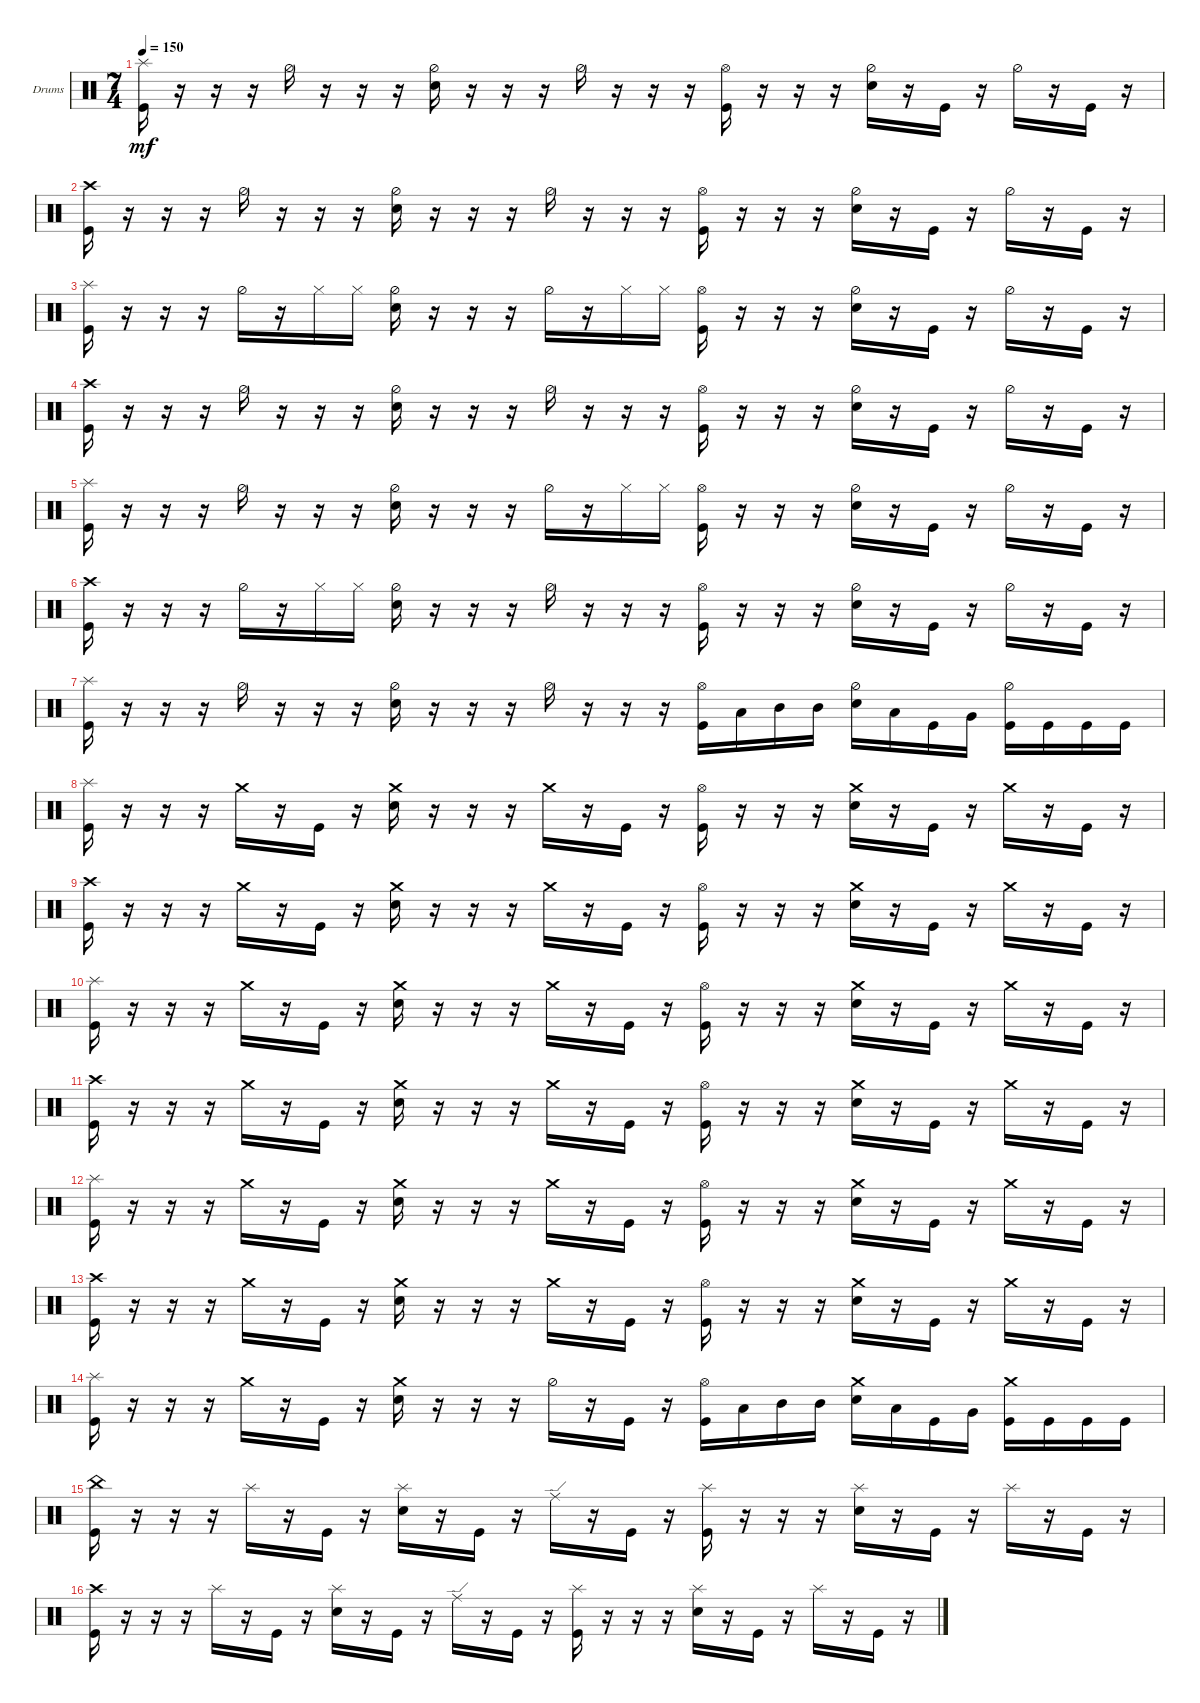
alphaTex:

\defaultSystemsLayout 4
\bracketExtendMode groupsimilarinstruments
\firstSystemTrackNameOrientation horizontal
\otherSystemsTrackNameOrientation horizontal
\track ("Drumkit" "Drums") {instrument percussion}
\staff {score}
\articulation defaults
\ts (7 4)
\tempo 150
\clef neutral
\ks c
("Kick (hit)" "Splash (hit)").16{dy mf} r.16 r.16 r.16 "Hi-Hat (half)".16 r.16 r.16 r.16 ("Hi-Hat (half)" "Snare (hit) 2").16 r.16 r.16 r.16 "Hi-Hat (half)".16 r.16 r.16 r.16 ("Kick (hit)" "Hi-Hat (open)").16 r.16 r.16 r.16 ("Snare (hit) 2" "Hi-Hat (half)").16 r.16 "Kick (hit)".16 r.16 "Hi-Hat (half)".16 r.16 "Kick (hit)".16 r.16 |
("Kick (hit)" "Crash high (hit)").16 r.16 r.16 r.16 "Hi-Hat (half)".16 r.16 r.16 r.16 ("Hi-Hat (half)" "Snare (hit) 2").16 r.16 r.16 r.16 "Hi-Hat (half)".16 r.16 r.16 r.16 ("Kick (hit)" "Hi-Hat (open)").16 r.16 r.16 r.16 ("Snare (hit) 2" "Hi-Hat (half)").16 r.16 "Kick (hit)".16 r.16 "Hi-Hat (half)".16 r.16 "Kick (hit)".16 r.16 |
("Kick (hit)" "Splash (hit)").16 r.16 r.16 r.16 "Hi-Hat (half)".16 r.16 "Hi-Hat (closed)".16 "Hi-Hat (closed)".16 ("Hi-Hat (half)" "Snare (hit) 2").16 r.16 r.16 r.16 "Hi-Hat (half)".16 r.16 "Hi-Hat (closed)".16 "Hi-Hat (closed)".16 ("Kick (hit)" "Hi-Hat (open)").16 r.16 r.16 r.16 ("Snare (hit) 2" "Hi-Hat (half)").16 r.16 "Kick (hit)".16 r.16 "Hi-Hat (half)".16 r.16 "Kick (hit)".16 r.16 |
("Kick (hit)" "Crash high (hit)").16 r.16 r.16 r.16 "Hi-Hat (half)".16 r.16 r.16 r.16 ("Hi-Hat (half)" "Snare (hit) 2").16 r.16 r.16 r.16 "Hi-Hat (half)".16 r.16 r.16 r.16 ("Kick (hit)" "Hi-Hat (open)").16 r.16 r.16 r.16 ("Snare (hit) 2" "Hi-Hat (half)").16 r.16 "Kick (hit)".16 r.16 "Hi-Hat (half)".16 r.16 "Kick (hit)".16 r.16 |
("Kick (hit)" "Splash (hit)").16 r.16 r.16 r.16 "Hi-Hat (half)".16 r.16 r.16 r.16 ("Hi-Hat (half)" "Snare (hit) 2").16 r.16 r.16 r.16 "Hi-Hat (half)".16 r.16 "Hi-Hat (closed)".16 "Hi-Hat (closed)".16 ("Kick (hit)" "Hi-Hat (open)").16 r.16 r.16 r.16 ("Snare (hit) 2" "Hi-Hat (half)").16 r.16 "Kick (hit)".16 r.16 "Hi-Hat (half)".16 r.16 "Kick (hit)".16 r.16 |
("Kick (hit)" "Crash high (hit)").16 r.16 r.16 r.16 "Hi-Hat (half)".16 r.16 "Hi-Hat (closed)".16 "Hi-Hat (closed)".16 ("Hi-Hat (half)" "Snare (hit) 2").16 r.16 r.16 r.16 "Hi-Hat (half)".16 r.16 r.16 r.16 ("Kick (hit)" "Hi-Hat (open)").16 r.16 r.16 r.16 ("Snare (hit) 2" "Hi-Hat (half)").16 r.16 "Kick (hit)".16 r.16 "Hi-Hat (half)".16 r.16 "Kick (hit)".16 r.16 |
("Kick (hit)" "Splash (hit)").16 r.16 r.16 r.16 "Hi-Hat (half)".16 r.16 r.16 r.16 ("Hi-Hat (half)" "Snare (hit) 2").16 r.16 r.16 r.16 "Hi-Hat (half)".16 r.16 r.16 r.16 ("Kick (hit)" "Hi-Hat (open)").16 "Low Tom (hit)".16 "Mid Tom (hit)".16 "Mid Tom (hit)".16 ("Snare (hit) 2" "Hi-Hat (half)").16 "Low Tom (hit)".16 "Kick (hit)".16 "Very Low Tom (hit)".16 ("Hi-Hat (half)" "Kick (hit)").16 "Kick (hit)".16 "Kick (hit)".16 "Kick (hit)".16 |
("Kick (hit)" "Splash (hit)").16 r.16 r.16 r.16 "Crash medium (hit)".16 r.16 "Kick (hit)".16 r.16 ("Snare (hit) 2" "Crash medium (hit)").16 r.16 r.16 r.16 "Crash medium (hit)".16 r.16 "Kick (hit)".16 r.16 ("Kick (hit)" "Hi-Hat (open)").16 r.16 r.16 r.16 ("Snare (hit) 2" "Crash medium (hit)").16 r.16 "Kick (hit)".16 r.16 "Crash medium (hit)".16 r.16 "Kick (hit)".16 r.16 |
("Kick (hit)" "Crash high (hit)").16 r.16 r.16 r.16 "Crash medium (hit)".16 r.16 "Kick (hit)".16 r.16 ("Snare (hit) 2" "Crash medium (hit)").16 r.16 r.16 r.16 "Crash medium (hit)".16 r.16 "Kick (hit)".16 r.16 ("Kick (hit)" "Hi-Hat (open)").16 r.16 r.16 r.16 ("Snare (hit) 2" "Crash medium (hit)").16 r.16 "Kick (hit)".16 r.16 "Crash medium (hit)".16 r.16 "Kick (hit)".16 r.16 |
("Kick (hit)" "Splash (hit)").16 r.16 r.16 r.16 "Crash medium (hit)".16 r.16 "Kick (hit)".16 r.16 ("Snare (hit) 2" "Crash medium (hit)").16 r.16 r.16 r.16 "Crash medium (hit)".16 r.16 "Kick (hit)".16 r.16 ("Kick (hit)" "Hi-Hat (open)").16 r.16 r.16 r.16 ("Snare (hit) 2" "Crash medium (hit)").16 r.16 "Kick (hit)".16 r.16 "Crash medium (hit)".16 r.16 "Kick (hit)".16 r.16 |
("Kick (hit)" "Crash high (hit)").16 r.16 r.16 r.16 "Crash medium (hit)".16 r.16 "Kick (hit)".16 r.16 ("Snare (hit) 2" "Crash medium (hit)").16 r.16 r.16 r.16 "Crash medium (hit)".16 r.16 "Kick (hit)".16 r.16 ("Kick (hit)" "Hi-Hat (open)").16 r.16 r.16 r.16 ("Snare (hit) 2" "Crash medium (hit)").16 r.16 "Kick (hit)".16 r.16 "Crash medium (hit)".16 r.16 "Kick (hit)".16 r.16 |
("Kick (hit)" "Splash (hit)").16 r.16 r.16 r.16 "Crash medium (hit)".16 r.16 "Kick (hit)".16 r.16 ("Snare (hit) 2" "Crash medium (hit)").16 r.16 r.16 r.16 "Crash medium (hit)".16 r.16 "Kick (hit)".16 r.16 ("Kick (hit)" "Hi-Hat (open)").16 r.16 r.16 r.16 ("Snare (hit) 2" "Crash medium (hit)").16 r.16 "Kick (hit)".16 r.16 "Crash medium (hit)".16 r.16 "Kick (hit)".16 r.16 |
("Kick (hit)" "Crash high (hit)").16 r.16 r.16 r.16 "Crash medium (hit)".16 r.16 "Kick (hit)".16 r.16 ("Snare (hit) 2" "Crash medium (hit)").16 r.16 r.16 r.16 "Crash medium (hit)".16 r.16 "Kick (hit)".16 r.16 ("Kick (hit)" "Hi-Hat (open)").16 r.16 r.16 r.16 ("Snare (hit) 2" "Crash medium (hit)").16 r.16 "Kick (hit)".16 r.16 "Crash medium (hit)".16 r.16 "Kick (hit)".16 r.16 |
("Kick (hit)" "Splash (hit)").16 r.16 r.16 r.16 "Crash medium (hit)".16 r.16 "Kick (hit)".16 r.16 ("Snare (hit) 2" "Crash medium (hit)").16 r.16 r.16 r.16 "Hi-Hat (half)".16 r.16 "Kick (hit)".16 r.16 ("Kick (hit)" "Hi-Hat (open)").16 "Low Tom (hit)".16 "Mid Tom (hit)".16 "Mid Tom (hit)".16 ("Snare (hit) 2" "Crash medium (hit)").16 "Low Tom (hit)".16 "Kick (hit)".16 "Very Low Tom (hit)".16 ("Kick (hit)" "Crash medium (hit)").16 "Kick (hit)".16 "Kick (hit)".16 "Kick (hit)".16 |
("Kick (hit)" "China (hit)").16 r.16 r.16 r.16 "Splash (hit)".16 r.16 "Kick (hit)".16 r.16 ("Snare (hit) 2" "Splash (hit)").16 r.16 "Kick (hit)".16 r.16 "Ride (edge)".16 r.16 "Kick (hit)".16 r.16 ("Kick (hit)" "Splash (hit)").16 r.16 r.16 r.16 ("Snare (hit) 2" "Splash (hit)").16 r.16 "Kick (hit)".16 r.16 "Splash (hit)".16 r.16 "Kick (hit)".16 r.16 |
("Kick (hit)" "Crash high (hit)").16 r.16 r.16 r.16 "Splash (hit)".16 r.16 "Kick (hit)".16 r.16 ("Snare (hit) 2" "Splash (hit)").16 r.16 "Kick (hit)".16 r.16 "Ride (edge)".16 r.16 "Kick (hit)".16 r.16 ("Kick (hit)" "Splash (hit)").16 r.16 r.16 r.16 ("Snare (hit) 2" "Splash (hit)").16 r.16 "Kick (hit)".16 r.16 "Splash (hit)".16 r.16 "Kick (hit)".16 r.16
